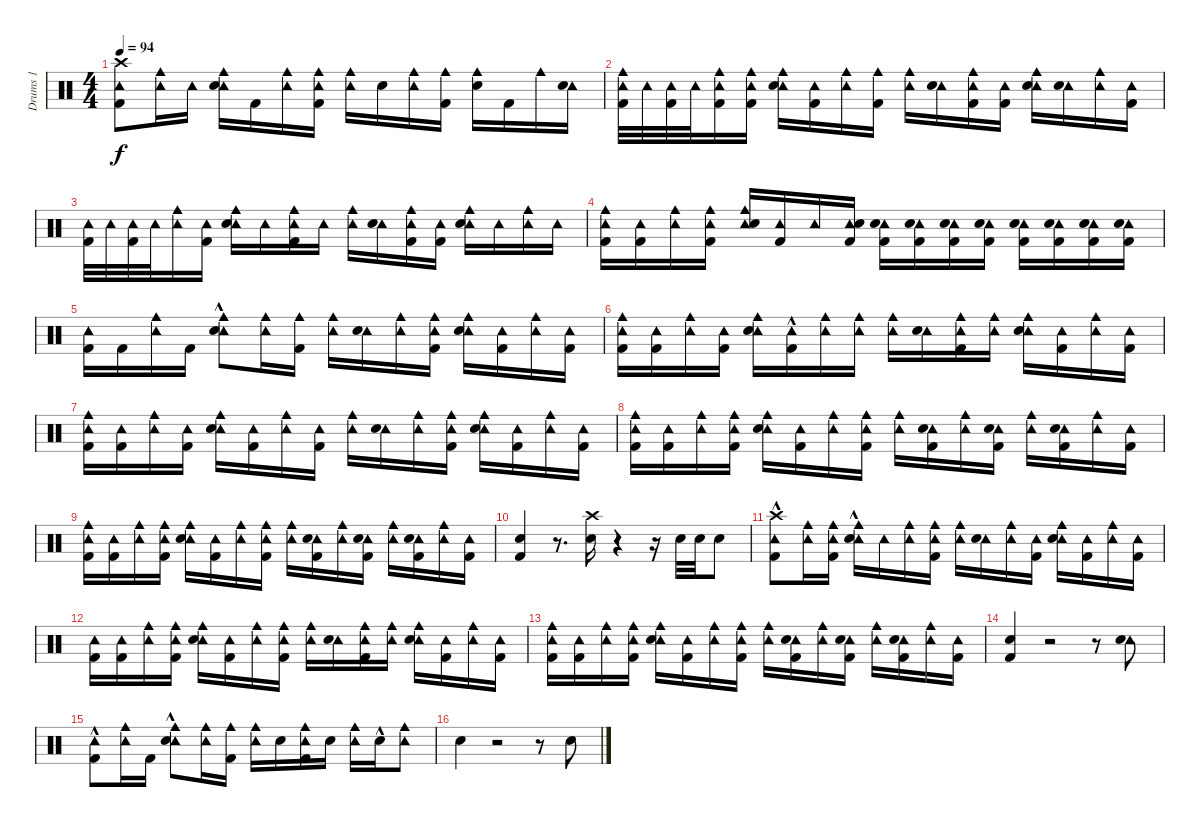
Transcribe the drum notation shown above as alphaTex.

\track ("Drums 1" "Drums 1") {instrument percussion}
\staff {score}
\articulation defaults
\ts (4 4)
\tempo 94
\clef neutral
\ks c
("Tambourine (hit)" "Crash high (hit)" "Kick (hit) 2").8{dy f} ("Cowbell medium (hit)" "Tambourine (hit)").16 "Tambourine (hit)".16 ("Cowbell medium (hit)" "Tambourine (hit)" "Snare (hit) 2").16 "Kick (hit) 2".16 ("Cowbell medium (hit)" "Tambourine (hit)").16 ("Cowbell medium (hit)" "Tambourine (hit)" "Kick (hit) 2").16 ("Cowbell medium (hit)" "Tambourine (hit)").16 "Snare (hit) 2".16 ("Cowbell medium (hit)" "Tambourine (hit)").16 ("Cowbell medium (hit)" "Kick (hit) 2").16 ("Cowbell medium (hit)" "Snare (hit) 2").16 "Kick (hit) 2".16 "Cowbell medium (hit)".16 ("Tambourine (hit)" "Electric Snare (hit)").16 |
("Cowbell medium (hit)" "Tambourine (hit)" "Kick (hit) 2").32 "Tambourine (hit)".32 ("Tambourine (hit)" "Kick (hit) 2").32 "Tambourine (hit)".32 ("Cowbell medium (hit)" "Tambourine (hit)" "Kick (hit) 2").16 ("Cowbell medium (hit)" "Tambourine (hit)" "Kick (hit) 2").16 ("Cowbell medium (hit)" "Tambourine (hit)" "Electric Snare (hit)").16 ("Tambourine (hit)" "Kick (hit) 2").16 ("Cowbell medium (hit)" "Tambourine (hit)").16 ("Cowbell medium (hit)" "Kick (hit) 2").16 ("Cowbell medium (hit)" "Tambourine (hit)").16 ("Tambourine (hit)" "Snare (hit) 2").16 ("Cowbell medium (hit)" "Tambourine (hit)" "Kick (hit) 2").16 ("Tambourine (hit)" "Kick (hit) 2").16 ("Cowbell medium (hit)" "Tambourine (hit)" "Snare (hit) 2").16 ("Tambourine (hit)" "Snare (hit) 2").16 ("Cowbell medium (hit)" "Tambourine (hit)").16 ("Tambourine (hit)" "Kick (hit) 2").16 |
("Tambourine (hit)" "Kick (hit) 2").32 "Tambourine (hit)".32 ("Tambourine (hit)" "Kick (hit) 2").32 "Tambourine (hit)".32 ("Cowbell medium (hit)" "Tambourine (hit)").16 ("Tambourine (hit)" "Kick (hit) 2").16 ("Cowbell medium (hit)" "Tambourine (hit)" "Electric Snare (hit)").16 "Tambourine (hit)".16 ("Cowbell medium (hit)" "Tambourine (hit)" "Kick (hit) 2").16 "Tambourine (hit)".16 ("Cowbell medium (hit)" "Tambourine (hit)").16 ("Tambourine (hit)" "Snare (hit) 2").16 ("Cowbell medium (hit)" "Tambourine (hit)" "Kick (hit) 2").16 ("Tambourine (hit)" "Kick (hit) 2").16 ("Cowbell medium (hit)" "Tambourine (hit)" "Electric Snare (hit)").16 "Tambourine (hit)".16 ("Cowbell medium (hit)" "Tambourine (hit)").16 "Tambourine (hit)".16 |
("Cowbell medium (hit)" "Tambourine (hit)" "Kick (hit) 2").16 ("Tambourine (hit)" "Kick (hit) 2").16 ("Cowbell medium (hit)" "Tambourine (hit)").16 ("Cowbell medium (hit)" "Tambourine (hit)" "Kick (hit) 2").16 ("Cowbell medium (hit)" "Tambourine (hit)" "Snare (hit) 2").16 ("Tambourine (hit)" "Kick (hit) 2").16 "Tambourine (hit)".16 ("Tambourine (hit)" "Snare (hit) 2" "Kick (hit) 2").16 ("Tambourine (hit)" "Kick (hit) 2" "Snare (hit) 2").16 ("Tambourine (hit)" "Kick (hit) 2" "Snare (hit) 2").16 ("Tambourine (hit)" "Kick (hit) 2" "Snare (hit) 2").16 ("Tambourine (hit)" "Kick (hit) 2" "Snare (hit) 2").16 ("Tambourine (hit)" "Kick (hit) 2" "Snare (hit) 2").16 ("Tambourine (hit)" "Kick (hit) 2" "Snare (hit) 2").16 ("Tambourine (hit)" "Kick (hit) 2" "Snare (hit) 2").16 ("Tambourine (hit)" "Kick (hit) 2" "Snare (hit) 2").16 |
("Tambourine (hit)" "Kick (hit) 2").16 "Kick (hit) 2".16 ("Cowbell medium (hit)" "Tambourine (hit)").16 "Kick (hit) 2".16 ("Cowbell medium (hit)" "Tambourine (hit)" "Snare (hit) 2"{hac}).8 ("Cowbell medium (hit)" "Tambourine (hit)").16 ("Cowbell medium (hit)" "Kick (hit) 2").16 ("Cowbell medium (hit)" "Tambourine (hit)").16 ("Tambourine (hit)" "Snare (hit) 2").16 ("Cowbell medium (hit)" "Tambourine (hit)").16 ("Cowbell medium (hit)" "Tambourine (hit)" "Kick (hit) 2").16 ("Cowbell medium (hit)" "Tambourine (hit)" "Snare (hit) 2").16 ("Tambourine (hit)" "Kick (hit) 2").16 ("Cowbell medium (hit)" "Tambourine (hit)").16 ("Tambourine (hit)" "Kick (hit) 2").16 |
("Cowbell medium (hit)" "Tambourine (hit)" "Kick (hit) 2").16 ("Tambourine (hit)" "Kick (hit) 2").16 ("Cowbell medium (hit)" "Tambourine (hit)").16 ("Tambourine (hit)" "Kick (hit) 2").16 ("Cowbell medium (hit)" "Tambourine (hit)" "Snare (hit) 2").16 ("Tambourine (hit)" "Kick (hit) 2"{hac}).16 ("Cowbell medium (hit)" "Tambourine (hit)").16 ("Cowbell medium (hit)" "Tambourine (hit)").16 ("Cowbell medium (hit)" "Tambourine (hit)").16 ("Tambourine (hit)" "Electric Snare (hit)").16 ("Cowbell medium (hit)" "Tambourine (hit)" "Kick (hit) 2").16 ("Cowbell medium (hit)" "Tambourine (hit)").16 ("Cowbell medium (hit)" "Tambourine (hit)" "Electric Snare (hit)").16 ("Tambourine (hit)" "Kick (hit) 2").16 ("Cowbell medium (hit)" "Tambourine (hit)").16 ("Tambourine (hit)" "Kick (hit) 2").16 |
("Cowbell medium (hit)" "Tambourine (hit)" "Kick (hit) 2").16 ("Tambourine (hit)" "Kick (hit) 2").16 ("Cowbell medium (hit)" "Tambourine (hit)").16 ("Tambourine (hit)" "Kick (hit) 2").16 ("Cowbell medium (hit)" "Tambourine (hit)" "Snare (hit) 2").16 ("Tambourine (hit)" "Kick (hit) 2").16 ("Cowbell medium (hit)" "Tambourine (hit)").16 ("Tambourine (hit)" "Kick (hit) 2").16 ("Cowbell medium (hit)" "Tambourine (hit)").16 ("Tambourine (hit)" "Snare (hit) 2").16 ("Cowbell medium (hit)" "Tambourine (hit)").16 ("Cowbell medium (hit)" "Tambourine (hit)" "Kick (hit) 2").16 ("Cowbell medium (hit)" "Tambourine (hit)" "Snare (hit) 2").16 ("Tambourine (hit)" "Kick (hit) 2").16 ("Cowbell medium (hit)" "Tambourine (hit)").16 ("Tambourine (hit)" "Kick (hit) 2").16 |
("Cowbell medium (hit)" "Tambourine (hit)" "Kick (hit) 2").16 ("Tambourine (hit)" "Kick (hit) 2").16 ("Cowbell medium (hit)" "Tambourine (hit)").16 ("Cowbell medium (hit)" "Tambourine (hit)" "Kick (hit) 2").16 ("Cowbell medium (hit)" "Tambourine (hit)" "Snare (hit) 2").16 ("Tambourine (hit)" "Kick (hit) 2").16 ("Cowbell medium (hit)" "Tambourine (hit)").16 ("Cowbell medium (hit)" "Tambourine (hit)" "Kick (hit) 2").16 ("Cowbell medium (hit)" "Tambourine (hit)").16 ("Tambourine (hit)" "Kick (hit) 2" "Electric Snare (hit)").16 ("Cowbell medium (hit)" "Tambourine (hit)").16 ("Tambourine (hit)" "Electric Snare (hit)" "Kick (hit) 2").16 ("Cowbell medium (hit)" "Tambourine (hit)").16 ("Tambourine (hit)" "Kick (hit) 2" "Electric Snare (hit)").16 ("Cowbell medium (hit)" "Tambourine (hit)").16 ("Tambourine (hit)" "Kick (hit) 2").16 |
("Cowbell medium (hit)" "Tambourine (hit)" "Kick (hit) 2").16 ("Tambourine (hit)" "Kick (hit) 2").16 ("Cowbell medium (hit)" "Tambourine (hit)").16 ("Cowbell medium (hit)" "Tambourine (hit)" "Kick (hit) 2").16 ("Cowbell medium (hit)" "Tambourine (hit)" "Snare (hit) 2").16 ("Tambourine (hit)" "Kick (hit) 2").16 ("Cowbell medium (hit)" "Tambourine (hit)").16 ("Cowbell medium (hit)" "Tambourine (hit)" "Kick (hit) 2").16 ("Cowbell medium (hit)" "Tambourine (hit)").16 ("Tambourine (hit)" "Kick (hit) 2" "Electric Snare (hit)").16 ("Cowbell medium (hit)" "Tambourine (hit)").16 ("Tambourine (hit)" "Electric Snare (hit)" "Kick (hit) 2").16 ("Cowbell medium (hit)" "Tambourine (hit)").16 ("Tambourine (hit)" "Kick (hit) 2" "Electric Snare (hit)").16 ("Cowbell medium (hit)" "Tambourine (hit)").16 ("Tambourine (hit)" "Kick (hit) 2").16 |
("Kick (hit) 2" "Snare (hit) 2").4 r.8{d} ("Crash high (hit)" "Electric Snare (hit)").16 r.4 r.16 "Electric Snare (hit)".32 "Snare (hit) 2".32 "Electric Snare (hit)".8 |
("Tambourine (hit)" "Crash high (hit)" "Kick (hit) 2"{hac}).8 ("Cowbell medium (hit)" "Tambourine (hit)").16 ("Cowbell medium (hit)" "Tambourine (hit)" "Kick (hit) 2").16 ("Cowbell medium (hit)" "Tambourine (hit)" "Snare (hit) 2"{hac}).16 "Tambourine (hit)".16 ("Cowbell medium (hit)" "Tambourine (hit)").16 ("Cowbell medium (hit)" "Tambourine (hit)" "Kick (hit) 2").16 ("Cowbell medium (hit)" "Tambourine (hit)").16 ("Tambourine (hit)" "Electric Snare (hit)").16 ("Cowbell medium (hit)" "Tambourine (hit)").16 ("Tambourine (hit)" "Kick (hit) 2").16 ("Cowbell medium (hit)" "Tambourine (hit)" "Snare (hit) 2").16 ("Tambourine (hit)" "Kick (hit) 2").16 ("Cowbell medium (hit)" "Tambourine (hit)").16 ("Tambourine (hit)" "Kick (hit) 2").16 |
("Tambourine (hit)" "Kick (hit) 2").16 ("Tambourine (hit)" "Kick (hit) 2").16 ("Cowbell medium (hit)" "Tambourine (hit)").16 ("Cowbell medium (hit)" "Tambourine (hit)" "Kick (hit) 2").16 ("Cowbell medium (hit)" "Tambourine (hit)" "Snare (hit) 2").16 ("Tambourine (hit)" "Kick (hit) 2").16 ("Cowbell medium (hit)" "Tambourine (hit)").16 ("Cowbell medium (hit)" "Tambourine (hit)" "Kick (hit) 2").16 ("Cowbell medium (hit)" "Tambourine (hit)").16 ("Tambourine (hit)" "Snare (hit) 2").16 ("Cowbell medium (hit)" "Tambourine (hit)" "Kick (hit) 2").16 ("Cowbell medium (hit)" "Tambourine (hit)").16 ("Cowbell medium (hit)" "Tambourine (hit)" "Electric Snare (hit)").16 ("Tambourine (hit)" "Kick (hit) 2").16 ("Cowbell medium (hit)" "Tambourine (hit)").16 ("Tambourine (hit)" "Kick (hit) 2").16 |
("Cowbell medium (hit)" "Tambourine (hit)" "Kick (hit) 2").16 ("Tambourine (hit)" "Kick (hit) 2").16 ("Cowbell medium (hit)" "Tambourine (hit)").16 ("Cowbell medium (hit)" "Tambourine (hit)" "Kick (hit) 2").16 ("Cowbell medium (hit)" "Tambourine (hit)" "Snare (hit) 2").16 ("Tambourine (hit)" "Kick (hit) 2").16 ("Cowbell medium (hit)" "Tambourine (hit)").16 ("Cowbell medium (hit)" "Tambourine (hit)" "Kick (hit) 2").16 ("Cowbell medium (hit)" "Tambourine (hit)").16 ("Tambourine (hit)" "Kick (hit) 2" "Electric Snare (hit)").16 ("Cowbell medium (hit)" "Tambourine (hit)").16 ("Tambourine (hit)" "Electric Snare (hit)" "Kick (hit) 2").16 ("Cowbell medium (hit)" "Tambourine (hit)").16 ("Tambourine (hit)" "Kick (hit) 2" "Electric Snare (hit)").16 ("Cowbell medium (hit)" "Tambourine (hit)").16 ("Tambourine (hit)" "Kick (hit) 2").16 |
("Kick (hit) 2" "Electric Snare (hit)").4 r.2 r.8 ("Tambourine (hit)" "Snare (hit) 2").8 |
("Tambourine (hit)" "Kick (hit) 2"{hac}).8 ("Cowbell medium (hit)" "Tambourine (hit)").16 "Kick (hit) 2".16 ("Cowbell medium (hit)" "Tambourine (hit)" "Snare (hit) 2"{hac}).8 ("Cowbell medium (hit)" "Tambourine (hit)").16 ("Cowbell medium (hit)" "Kick (hit) 2").16 ("Cowbell medium (hit)" "Tambourine (hit)").16 "Electric Snare (hit)".16 ("Cowbell medium (hit)" "Tambourine (hit)" "Kick (hit) 2").16 "Snare (hit) 2".16 ("Cowbell medium (hit)" "Tambourine (hit)").16 "Snare (hit) 2"{hac}.16 ("Cowbell medium (hit)" "Tambourine (hit)").8 |
"Electric Snare (hit)".4 r.2 r.8 "Snare (hit) 2".8
